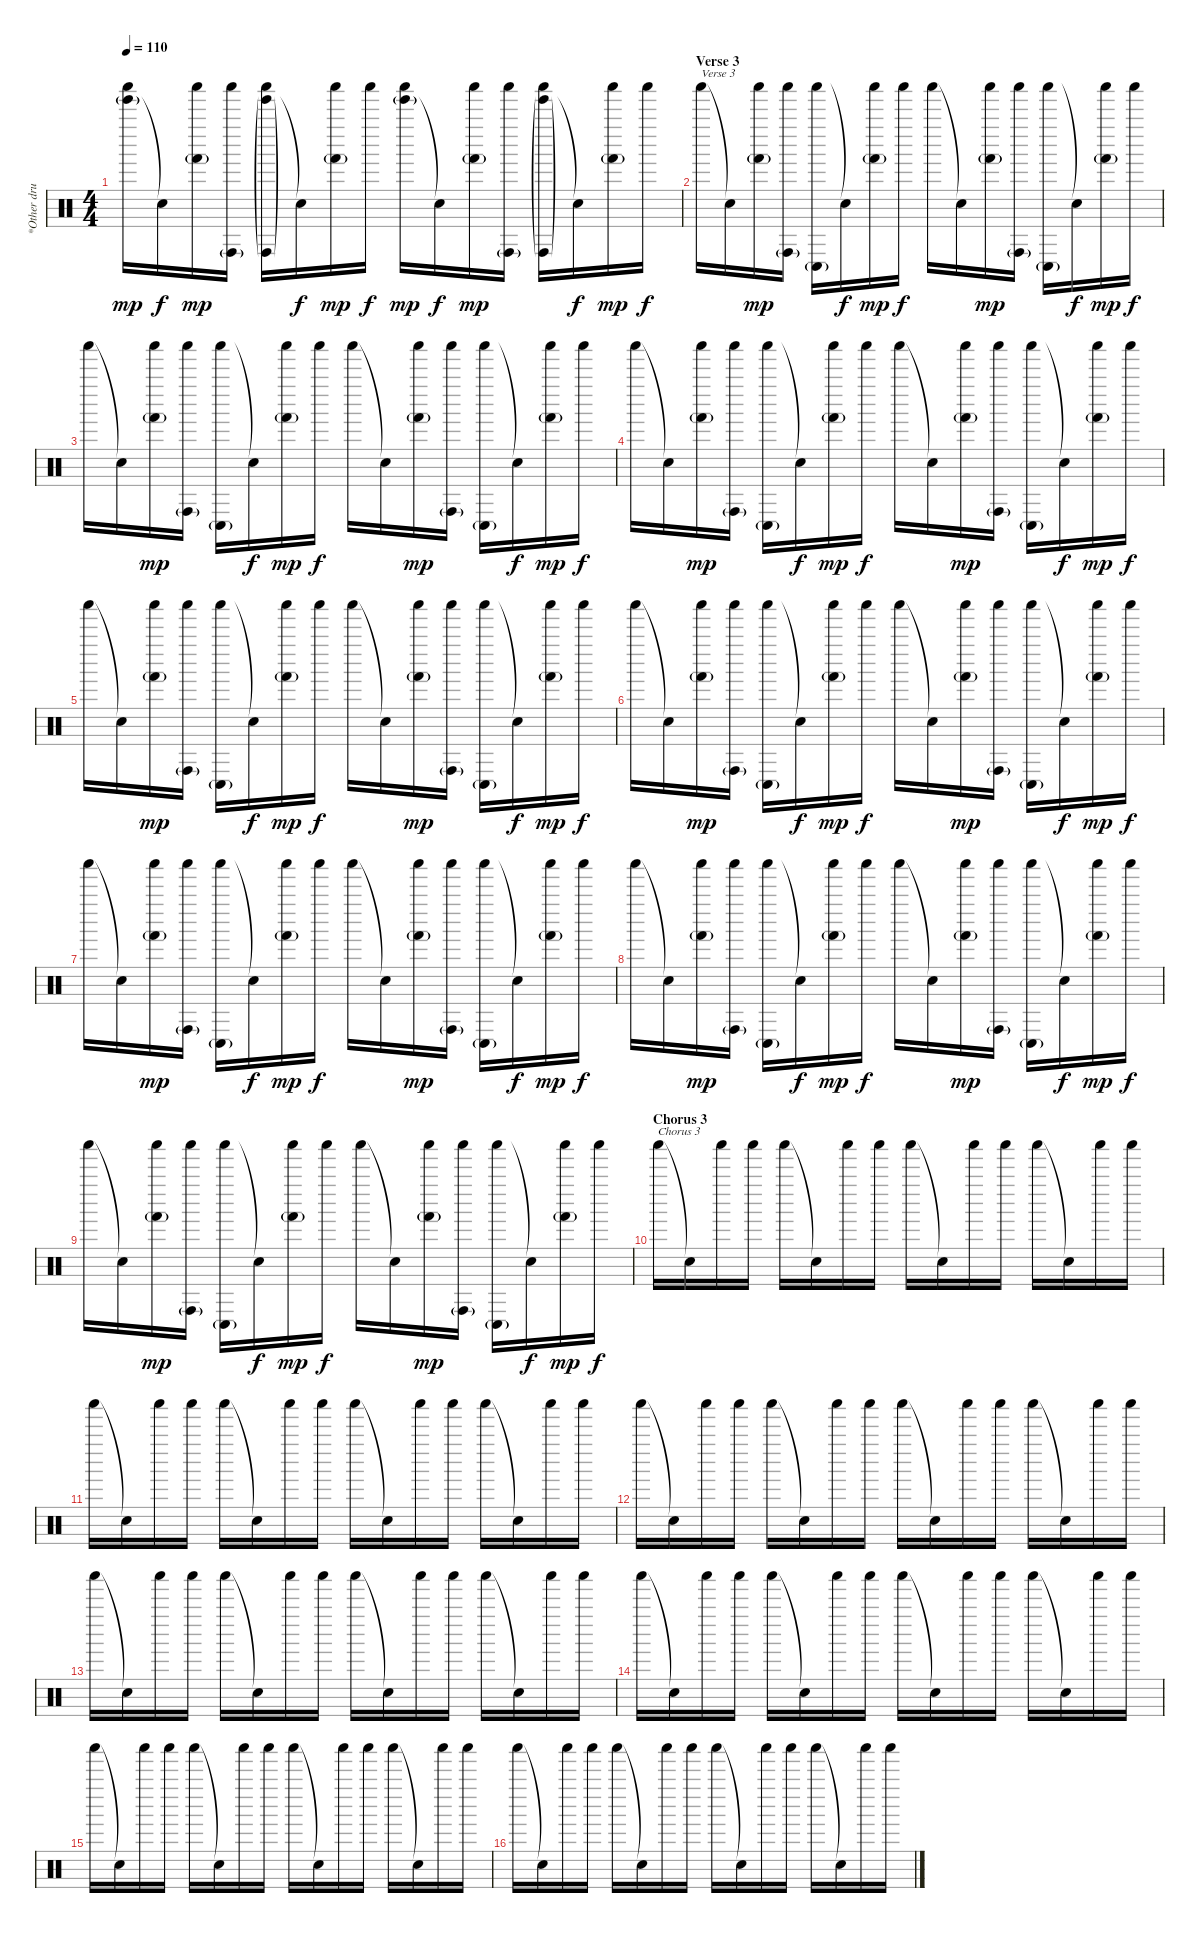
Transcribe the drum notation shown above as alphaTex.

\track ("*Other drums" "*Other dru") {instrument percussion}
\staff {score}
\articulation defaults
\ts (4 4)
\tempo 110
\clef neutral
\ks c
("Tinkle Bell (hit)"{g} "Shaker (hit)").16{dy mp} "Snare (hit)"{t}.16{dy f} ("Shaker (hit)" "Hand (hit)"{g}).16{dy mp} ("Shaker (hit)" "Conga high (hit)"{g}).16 ("Tinkle Bell (hit)"{g} "Shaker (hit)" "Conga high (hit)"{g}).16 "Snare (hit)"{t}.16{dy f} ("Shaker (hit)" "Hand (hit)"{g}).16{dy mp} "Shaker (hit)".16{dy f} ("Tinkle Bell (hit)"{g} "Shaker (hit)").16{dy mp} "Snare (hit)"{t}.16{dy f} ("Shaker (hit)" "Hand (hit)"{g}).16{dy mp} ("Shaker (hit)" "Conga high (hit)"{g}).16 ("Tinkle Bell (hit)"{g} "Shaker (hit)" "Conga high (hit)"{g}).16 "Snare (hit)"{t}.16{dy f} ("Shaker (hit)" "Hand (hit)"{g}).16{dy mp} "Shaker (hit)".16{dy f} |
\section ("" "Verse 3")
"Shaker (hit)".16{txt "Verse 3"} "Snare (hit)"{t}.16 ("Shaker (hit)" "Hand (hit)"{g}).16{dy mp} ("Shaker (hit)" "Conga high (hit)"{g}).16 ("Shaker (hit)" "Conga low (hit)"{g}).16 "Snare (hit)"{t}.16{dy f} ("Shaker (hit)" "Hand (hit)"{g}).16{dy mp} "Shaker (hit)".16{dy f} "Shaker (hit)".16 "Snare (hit)"{t}.16 ("Shaker (hit)" "Hand (hit)"{g}).16{dy mp} ("Shaker (hit)" "Conga high (hit)"{g}).16 ("Shaker (hit)" "Conga low (hit)"{g}).16 "Snare (hit)"{t}.16{dy f} ("Shaker (hit)" "Hand (hit)"{g}).16{dy mp} "Shaker (hit)".16{dy f} |
"Shaker (hit)".16 "Snare (hit)"{t}.16 ("Shaker (hit)" "Hand (hit)"{g}).16{dy mp} ("Shaker (hit)" "Conga high (hit)"{g}).16 ("Shaker (hit)" "Conga low (hit)"{g}).16 "Snare (hit)"{t}.16{dy f} ("Shaker (hit)" "Hand (hit)"{g}).16{dy mp} "Shaker (hit)".16{dy f} "Shaker (hit)".16 "Snare (hit)"{t}.16 ("Shaker (hit)" "Hand (hit)"{g}).16{dy mp} ("Shaker (hit)" "Conga high (hit)"{g}).16 ("Shaker (hit)" "Conga low (hit)"{g}).16 "Snare (hit)"{t}.16{dy f} ("Shaker (hit)" "Hand (hit)"{g}).16{dy mp} "Shaker (hit)".16{dy f} |
"Shaker (hit)".16 "Snare (hit)"{t}.16 ("Shaker (hit)" "Hand (hit)"{g}).16{dy mp} ("Shaker (hit)" "Conga high (hit)"{g}).16 ("Shaker (hit)" "Conga low (hit)"{g}).16 "Snare (hit)"{t}.16{dy f} ("Shaker (hit)" "Hand (hit)"{g}).16{dy mp} "Shaker (hit)".16{dy f} "Shaker (hit)".16 "Snare (hit)"{t}.16 ("Shaker (hit)" "Hand (hit)"{g}).16{dy mp} ("Shaker (hit)" "Conga high (hit)"{g}).16 ("Shaker (hit)" "Conga low (hit)"{g}).16 "Snare (hit)"{t}.16{dy f} ("Shaker (hit)" "Hand (hit)"{g}).16{dy mp} "Shaker (hit)".16{dy f} |
"Shaker (hit)".16 "Snare (hit)"{t}.16 ("Shaker (hit)" "Hand (hit)"{g}).16{dy mp} ("Shaker (hit)" "Conga high (hit)"{g}).16 ("Shaker (hit)" "Conga low (hit)"{g}).16 "Snare (hit)"{t}.16{dy f} ("Shaker (hit)" "Hand (hit)"{g}).16{dy mp} "Shaker (hit)".16{dy f} "Shaker (hit)".16 "Snare (hit)"{t}.16 ("Shaker (hit)" "Hand (hit)"{g}).16{dy mp} ("Shaker (hit)" "Conga high (hit)"{g}).16 ("Shaker (hit)" "Conga low (hit)"{g}).16 "Snare (hit)"{t}.16{dy f} ("Shaker (hit)" "Hand (hit)"{g}).16{dy mp} "Shaker (hit)".16{dy f} |
"Shaker (hit)".16 "Snare (hit)"{t}.16 ("Shaker (hit)" "Hand (hit)"{g}).16{dy mp} ("Shaker (hit)" "Conga high (hit)"{g}).16 ("Shaker (hit)" "Conga low (hit)"{g}).16 "Snare (hit)"{t}.16{dy f} ("Shaker (hit)" "Hand (hit)"{g}).16{dy mp} "Shaker (hit)".16{dy f} "Shaker (hit)".16 "Snare (hit)"{t}.16 ("Shaker (hit)" "Hand (hit)"{g}).16{dy mp} ("Shaker (hit)" "Conga high (hit)"{g}).16 ("Shaker (hit)" "Conga low (hit)"{g}).16 "Snare (hit)"{t}.16{dy f} ("Shaker (hit)" "Hand (hit)"{g}).16{dy mp} "Shaker (hit)".16{dy f} |
"Shaker (hit)".16 "Snare (hit)"{t}.16 ("Shaker (hit)" "Hand (hit)"{g}).16{dy mp} ("Shaker (hit)" "Conga high (hit)"{g}).16 ("Shaker (hit)" "Conga low (hit)"{g}).16 "Snare (hit)"{t}.16{dy f} ("Shaker (hit)" "Hand (hit)"{g}).16{dy mp} "Shaker (hit)".16{dy f} "Shaker (hit)".16 "Snare (hit)"{t}.16 ("Shaker (hit)" "Hand (hit)"{g}).16{dy mp} ("Shaker (hit)" "Conga high (hit)"{g}).16 ("Shaker (hit)" "Conga low (hit)"{g}).16 "Snare (hit)"{t}.16{dy f} ("Shaker (hit)" "Hand (hit)"{g}).16{dy mp} "Shaker (hit)".16{dy f} |
"Shaker (hit)".16 "Snare (hit)"{t}.16 ("Shaker (hit)" "Hand (hit)"{g}).16{dy mp} ("Shaker (hit)" "Conga high (hit)"{g}).16 ("Shaker (hit)" "Conga low (hit)"{g}).16 "Snare (hit)"{t}.16{dy f} ("Shaker (hit)" "Hand (hit)"{g}).16{dy mp} "Shaker (hit)".16{dy f} "Shaker (hit)".16 "Snare (hit)"{t}.16 ("Shaker (hit)" "Hand (hit)"{g}).16{dy mp} ("Shaker (hit)" "Conga high (hit)"{g}).16 ("Shaker (hit)" "Conga low (hit)"{g}).16 "Snare (hit)"{t}.16{dy f} ("Shaker (hit)" "Hand (hit)"{g}).16{dy mp} "Shaker (hit)".16{dy f} |
"Shaker (hit)".16 "Snare (hit)"{t}.16 ("Shaker (hit)" "Hand (hit)"{g}).16{dy mp} ("Shaker (hit)" "Conga high (hit)"{g}).16 ("Shaker (hit)" "Conga low (hit)"{g}).16 "Snare (hit)"{t}.16{dy f} ("Shaker (hit)" "Hand (hit)"{g}).16{dy mp} "Shaker (hit)".16{dy f} "Shaker (hit)".16 "Snare (hit)"{t}.16 ("Shaker (hit)" "Hand (hit)"{g}).16{dy mp} ("Shaker (hit)" "Conga high (hit)"{g}).16 ("Shaker (hit)" "Conga low (hit)"{g}).16 "Snare (hit)"{t}.16{dy f} ("Shaker (hit)" "Hand (hit)"{g}).16{dy mp} "Shaker (hit)".16{dy f} |
\section ("" "Chorus 3")
"Shaker (hit)".16{txt "Chorus 3"} "Snare (hit)"{t}.16 "Shaker (hit)".16 "Shaker (hit)".16 "Shaker (hit)".16 "Snare (hit)"{t}.16 "Shaker (hit)".16 "Shaker (hit)".16 "Shaker (hit)".16 "Snare (hit)"{t}.16 "Shaker (hit)".16 "Shaker (hit)".16 "Shaker (hit)".16 "Snare (hit)"{t}.16 "Shaker (hit)".16 "Shaker (hit)".16 |
"Shaker (hit)".16 "Snare (hit)"{t}.16 "Shaker (hit)".16 "Shaker (hit)".16 "Shaker (hit)".16 "Snare (hit)"{t}.16 "Shaker (hit)".16 "Shaker (hit)".16 "Shaker (hit)".16 "Snare (hit)"{t}.16 "Shaker (hit)".16 "Shaker (hit)".16 "Shaker (hit)".16 "Snare (hit)"{t}.16 "Shaker (hit)".16 "Shaker (hit)".16 |
"Shaker (hit)".16 "Snare (hit)"{t}.16 "Shaker (hit)".16 "Shaker (hit)".16 "Shaker (hit)".16 "Snare (hit)"{t}.16 "Shaker (hit)".16 "Shaker (hit)".16 "Shaker (hit)".16 "Snare (hit)"{t}.16 "Shaker (hit)".16 "Shaker (hit)".16 "Shaker (hit)".16 "Snare (hit)"{t}.16 "Shaker (hit)".16 "Shaker (hit)".16 |
"Shaker (hit)".16 "Snare (hit)"{t}.16 "Shaker (hit)".16 "Shaker (hit)".16 "Shaker (hit)".16 "Snare (hit)"{t}.16 "Shaker (hit)".16 "Shaker (hit)".16 "Shaker (hit)".16 "Snare (hit)"{t}.16 "Shaker (hit)".16 "Shaker (hit)".16 "Shaker (hit)".16 "Snare (hit)"{t}.16 "Shaker (hit)".16 "Shaker (hit)".16 |
"Shaker (hit)".16 "Snare (hit)"{t}.16 "Shaker (hit)".16 "Shaker (hit)".16 "Shaker (hit)".16 "Snare (hit)"{t}.16 "Shaker (hit)".16 "Shaker (hit)".16 "Shaker (hit)".16 "Snare (hit)"{t}.16 "Shaker (hit)".16 "Shaker (hit)".16 "Shaker (hit)".16 "Snare (hit)"{t}.16 "Shaker (hit)".16 "Shaker (hit)".16 |
"Shaker (hit)".16 "Snare (hit)"{t}.16 "Shaker (hit)".16 "Shaker (hit)".16 "Shaker (hit)".16 "Snare (hit)"{t}.16 "Shaker (hit)".16 "Shaker (hit)".16 "Shaker (hit)".16 "Snare (hit)"{t}.16 "Shaker (hit)".16 "Shaker (hit)".16 "Shaker (hit)".16 "Snare (hit)"{t}.16 "Shaker (hit)".16 "Shaker (hit)".16 |
"Shaker (hit)".16 "Snare (hit)"{t}.16 "Shaker (hit)".16 "Shaker (hit)".16 "Shaker (hit)".16 "Snare (hit)"{t}.16 "Shaker (hit)".16 "Shaker (hit)".16 "Shaker (hit)".16 "Snare (hit)"{t}.16 "Shaker (hit)".16 "Shaker (hit)".16 "Shaker (hit)".16 "Snare (hit)"{t}.16 "Shaker (hit)".16 "Shaker (hit)".16
